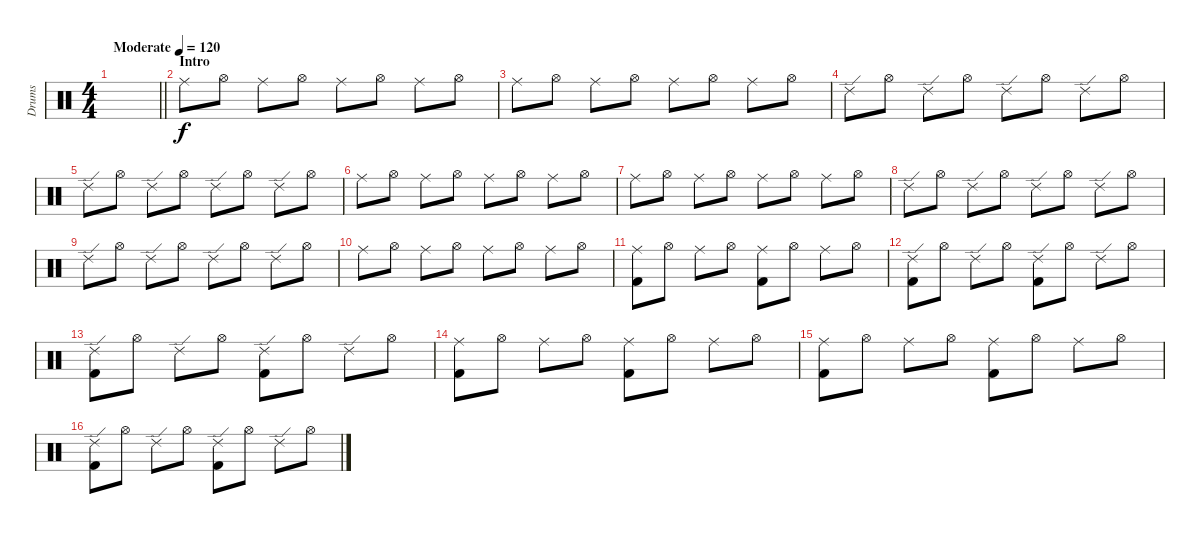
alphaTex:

\track ("Drums" "Drums") {instrument percussion}
\staff {score}
\articulation defaults
\ts (4 4)
\tempo (120 "Moderate")
\clef neutral
\barLineRight lightlight
\ks c
|
\section ("" "Intro")
"Ride (middle)".8 "Hi-Hat (open)".8 "Ride (middle)".8 "Hi-Hat (open)".8 "Ride (middle)".8 "Hi-Hat (open)".8 "Ride (middle)".8 "Hi-Hat (open)".8 |
"Ride (middle)".8 "Hi-Hat (open)".8 "Ride (middle)".8 "Hi-Hat (open)".8 "Ride (middle)".8 "Hi-Hat (open)".8 "Ride (middle)".8 "Hi-Hat (open)".8 |
"Ride (edge) 2".8 "Hi-Hat (open)".8 "Ride (edge) 2".8 "Hi-Hat (open)".8 "Ride (edge) 2".8 "Hi-Hat (open)".8 "Ride (edge) 2".8 "Hi-Hat (open)".8 |
"Ride (edge) 2".8 "Hi-Hat (open)".8 "Ride (edge) 2".8 "Hi-Hat (open)".8 "Ride (edge) 2".8 "Hi-Hat (open)".8 "Ride (edge) 2".8 "Hi-Hat (open)".8 |
"Ride (middle)".8 "Hi-Hat (open)".8 "Ride (middle)".8 "Hi-Hat (open)".8 "Ride (middle)".8 "Hi-Hat (open)".8 "Ride (middle)".8 "Hi-Hat (open)".8 |
"Ride (middle)".8 "Hi-Hat (open)".8 "Ride (middle)".8 "Hi-Hat (open)".8 "Ride (middle)".8 "Hi-Hat (open)".8 "Ride (middle)".8 "Hi-Hat (open)".8 |
"Ride (edge) 2".8 "Hi-Hat (open)".8 "Ride (edge) 2".8 "Hi-Hat (open)".8 "Ride (edge) 2".8 "Hi-Hat (open)".8 "Ride (edge) 2".8 "Hi-Hat (open)".8 |
"Ride (edge) 2".8 "Hi-Hat (open)".8 "Ride (edge) 2".8 "Hi-Hat (open)".8 "Ride (edge) 2".8 "Hi-Hat (open)".8 "Ride (edge) 2".8 "Hi-Hat (open)".8 |
"Ride (middle)".8 "Hi-Hat (open)".8 "Ride (middle)".8 "Hi-Hat (open)".8 "Ride (middle)".8 "Hi-Hat (open)".8 "Ride (middle)".8 "Hi-Hat (open)".8 |
("Ride (middle)" "Kick (hit) 2").8 "Hi-Hat (open)".8 "Ride (middle)".8 "Hi-Hat (open)".8 ("Ride (middle)" "Kick (hit) 2").8 "Hi-Hat (open)".8 "Ride (middle)".8 "Hi-Hat (open)".8 |
("Ride (edge) 2" "Kick (hit) 2").8 "Hi-Hat (open)".8 "Ride (edge) 2".8 "Hi-Hat (open)".8 ("Ride (edge) 2" "Kick (hit) 2").8 "Hi-Hat (open)".8 "Ride (edge) 2".8 "Hi-Hat (open)".8 |
("Ride (edge) 2" "Kick (hit) 2").8 "Hi-Hat (open)".8 "Ride (edge) 2".8 "Hi-Hat (open)".8 ("Ride (edge) 2" "Kick (hit) 2").8 "Hi-Hat (open)".8 "Ride (edge) 2".8 "Hi-Hat (open)".8 |
("Ride (middle)" "Kick (hit) 2").8 "Hi-Hat (open)".8 "Ride (middle)".8 "Hi-Hat (open)".8 ("Ride (middle)" "Kick (hit) 2").8 "Hi-Hat (open)".8 "Ride (middle)".8 "Hi-Hat (open)".8 |
("Ride (middle)" "Kick (hit) 2").8 "Hi-Hat (open)".8 "Ride (middle)".8 "Hi-Hat (open)".8 ("Ride (middle)" "Kick (hit) 2").8 "Hi-Hat (open)".8 "Ride (middle)".8 "Hi-Hat (open)".8 |
("Ride (edge) 2" "Kick (hit) 2").8 "Hi-Hat (open)".8 "Ride (edge) 2".8 "Hi-Hat (open)".8 ("Ride (edge) 2" "Kick (hit) 2").8 "Hi-Hat (open)".8 "Ride (edge) 2".8 "Hi-Hat (open)".8
